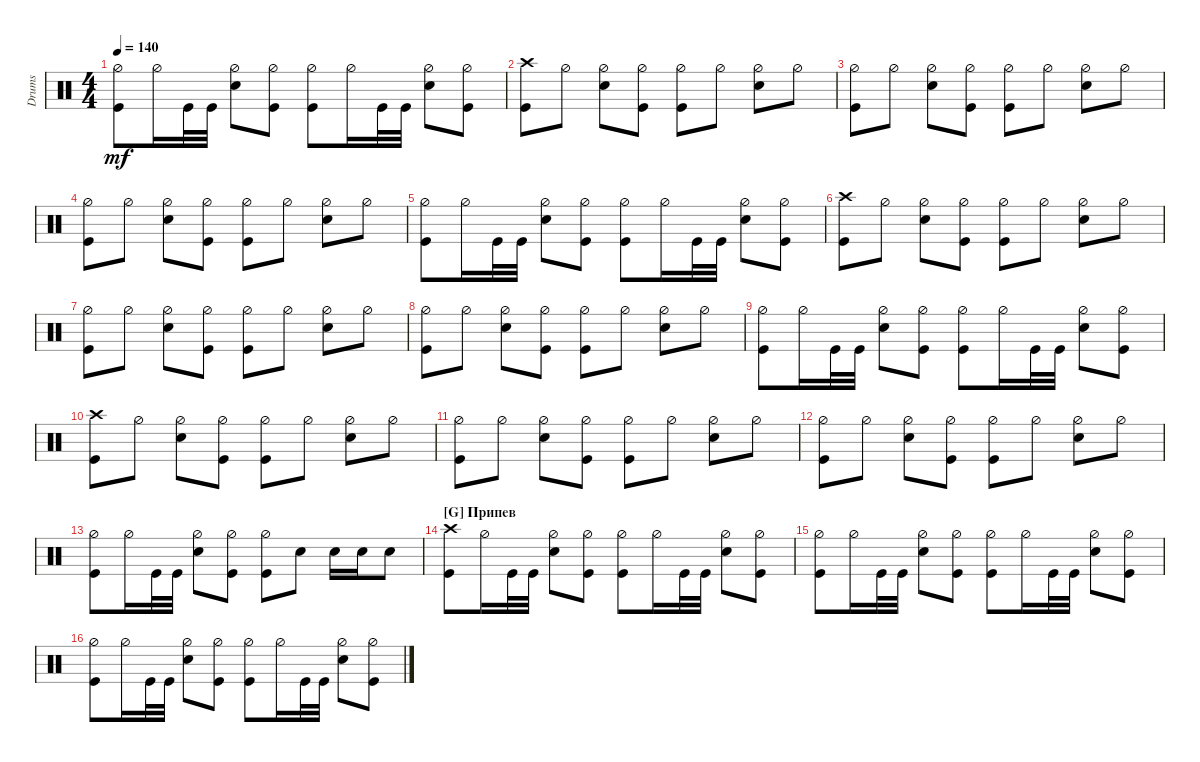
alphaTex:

\track ("Drumkit" "Drums") {instrument percussion}
\staff {score}
\articulation defaults
\ts (4 4)
\tempo 140
\clef neutral
\ks c
("Kick (hit)" "Hi-Hat (half)").8{dy mf} "Hi-Hat (half)".16 "Kick (hit)".32 "Kick (hit)".32 ("Hi-Hat (half)" "Snare (hit) 2").8 ("Kick (hit)" "Hi-Hat (half)").8 ("Kick (hit)" "Hi-Hat (half)").8 "Hi-Hat (half)".16 "Kick (hit)".32 "Kick (hit)".32 ("Hi-Hat (half)" "Snare (hit) 2").8 ("Hi-Hat (half)" "Kick (hit)").8 |
("Kick (hit)" "Crash high (hit)").8 "Hi-Hat (half)".8 ("Snare (hit) 2" "Hi-Hat (half)").8 ("Kick (hit)" "Hi-Hat (half)").8 ("Kick (hit)" "Hi-Hat (half)").8 "Hi-Hat (half)".8 ("Snare (hit) 2" "Hi-Hat (half)").8 "Hi-Hat (half)".8 |
("Kick (hit)" "Hi-Hat (half)").8 "Hi-Hat (half)".8 ("Snare (hit) 2" "Hi-Hat (half)").8 ("Kick (hit)" "Hi-Hat (half)").8 ("Kick (hit)" "Hi-Hat (half)").8 "Hi-Hat (half)".8 ("Snare (hit) 2" "Hi-Hat (half)").8 "Hi-Hat (half)".8 |
("Kick (hit)" "Hi-Hat (half)").8 "Hi-Hat (half)".8 ("Snare (hit) 2" "Hi-Hat (half)").8 ("Kick (hit)" "Hi-Hat (half)").8 ("Kick (hit)" "Hi-Hat (half)").8 "Hi-Hat (half)".8 ("Snare (hit) 2" "Hi-Hat (half)").8 "Hi-Hat (half)".8 |
("Kick (hit)" "Hi-Hat (half)").8 "Hi-Hat (half)".16 "Kick (hit)".32 "Kick (hit)".32 ("Hi-Hat (half)" "Snare (hit) 2").8 ("Kick (hit)" "Hi-Hat (half)").8 ("Kick (hit)" "Hi-Hat (half)").8 "Hi-Hat (half)".16 "Kick (hit)".32 "Kick (hit)".32 ("Hi-Hat (half)" "Snare (hit) 2").8 ("Hi-Hat (half)" "Kick (hit)").8 |
("Kick (hit)" "Crash high (hit)").8 "Hi-Hat (half)".8 ("Snare (hit) 2" "Hi-Hat (half)").8 ("Kick (hit)" "Hi-Hat (half)").8 ("Kick (hit)" "Hi-Hat (half)").8 "Hi-Hat (half)".8 ("Snare (hit) 2" "Hi-Hat (half)").8 "Hi-Hat (half)".8 |
("Kick (hit)" "Hi-Hat (half)").8 "Hi-Hat (half)".8 ("Snare (hit) 2" "Hi-Hat (half)").8 ("Kick (hit)" "Hi-Hat (half)").8 ("Kick (hit)" "Hi-Hat (half)").8 "Hi-Hat (half)".8 ("Snare (hit) 2" "Hi-Hat (half)").8 "Hi-Hat (half)".8 |
("Kick (hit)" "Hi-Hat (half)").8 "Hi-Hat (half)".8 ("Snare (hit) 2" "Hi-Hat (half)").8 ("Kick (hit)" "Hi-Hat (half)").8 ("Kick (hit)" "Hi-Hat (half)").8 "Hi-Hat (half)".8 ("Snare (hit) 2" "Hi-Hat (half)").8 "Hi-Hat (half)".8 |
("Kick (hit)" "Hi-Hat (half)").8 "Hi-Hat (half)".16 "Kick (hit)".32 "Kick (hit)".32 ("Hi-Hat (half)" "Snare (hit) 2").8 ("Kick (hit)" "Hi-Hat (half)").8 ("Kick (hit)" "Hi-Hat (half)").8 "Hi-Hat (half)".16 "Kick (hit)".32 "Kick (hit)".32 ("Hi-Hat (half)" "Snare (hit) 2").8 ("Hi-Hat (half)" "Kick (hit)").8 |
("Kick (hit)" "Crash high (hit)").8 "Hi-Hat (half)".8 ("Snare (hit) 2" "Hi-Hat (half)").8 ("Kick (hit)" "Hi-Hat (half)").8 ("Kick (hit)" "Hi-Hat (half)").8 "Hi-Hat (half)".8 ("Snare (hit) 2" "Hi-Hat (half)").8 "Hi-Hat (half)".8 |
("Kick (hit)" "Hi-Hat (half)").8 "Hi-Hat (half)".8 ("Snare (hit) 2" "Hi-Hat (half)").8 ("Kick (hit)" "Hi-Hat (half)").8 ("Kick (hit)" "Hi-Hat (half)").8 "Hi-Hat (half)".8 ("Snare (hit) 2" "Hi-Hat (half)").8 "Hi-Hat (half)".8 |
("Kick (hit)" "Hi-Hat (half)").8 "Hi-Hat (half)".8 ("Snare (hit) 2" "Hi-Hat (half)").8 ("Kick (hit)" "Hi-Hat (half)").8 ("Kick (hit)" "Hi-Hat (half)").8 "Hi-Hat (half)".8 ("Snare (hit) 2" "Hi-Hat (half)").8 "Hi-Hat (half)".8 |
("Kick (hit)" "Hi-Hat (half)").8 "Hi-Hat (half)".16 "Kick (hit)".32 "Kick (hit)".32 ("Hi-Hat (half)" "Snare (hit) 2").8 ("Kick (hit)" "Hi-Hat (half)").8 ("Kick (hit)" "Hi-Hat (half)").8 "Snare (hit) 2".8 "Snare (hit) 2".16 "Snare (hit) 2".16 "Snare (hit) 2".8 |
\section ("G" "Припев")
("Kick (hit)" "Crash high (hit)").8 "Hi-Hat (half)".16 "Kick (hit)".32 "Kick (hit)".32 ("Hi-Hat (half)" "Snare (hit) 2").8 ("Kick (hit)" "Hi-Hat (half)").8 ("Kick (hit)" "Hi-Hat (half)").8 "Hi-Hat (half)".16 "Kick (hit)".32 "Kick (hit)".32 ("Hi-Hat (half)" "Snare (hit) 2").8 ("Hi-Hat (half)" "Kick (hit)").8 |
("Kick (hit)" "Hi-Hat (half)").8 "Hi-Hat (half)".16 "Kick (hit)".32 "Kick (hit)".32 ("Hi-Hat (half)" "Snare (hit) 2").8 ("Kick (hit)" "Hi-Hat (half)").8 ("Kick (hit)" "Hi-Hat (half)").8 "Hi-Hat (half)".16 "Kick (hit)".32 "Kick (hit)".32 ("Hi-Hat (half)" "Snare (hit) 2").8 ("Hi-Hat (half)" "Kick (hit)").8 |
("Kick (hit)" "Hi-Hat (half)").8 "Hi-Hat (half)".16 "Kick (hit)".32 "Kick (hit)".32 ("Hi-Hat (half)" "Snare (hit) 2").8 ("Kick (hit)" "Hi-Hat (half)").8 ("Kick (hit)" "Hi-Hat (half)").8 "Hi-Hat (half)".16 "Kick (hit)".32 "Kick (hit)".32 ("Hi-Hat (half)" "Snare (hit) 2").8 ("Hi-Hat (half)" "Kick (hit)").8
